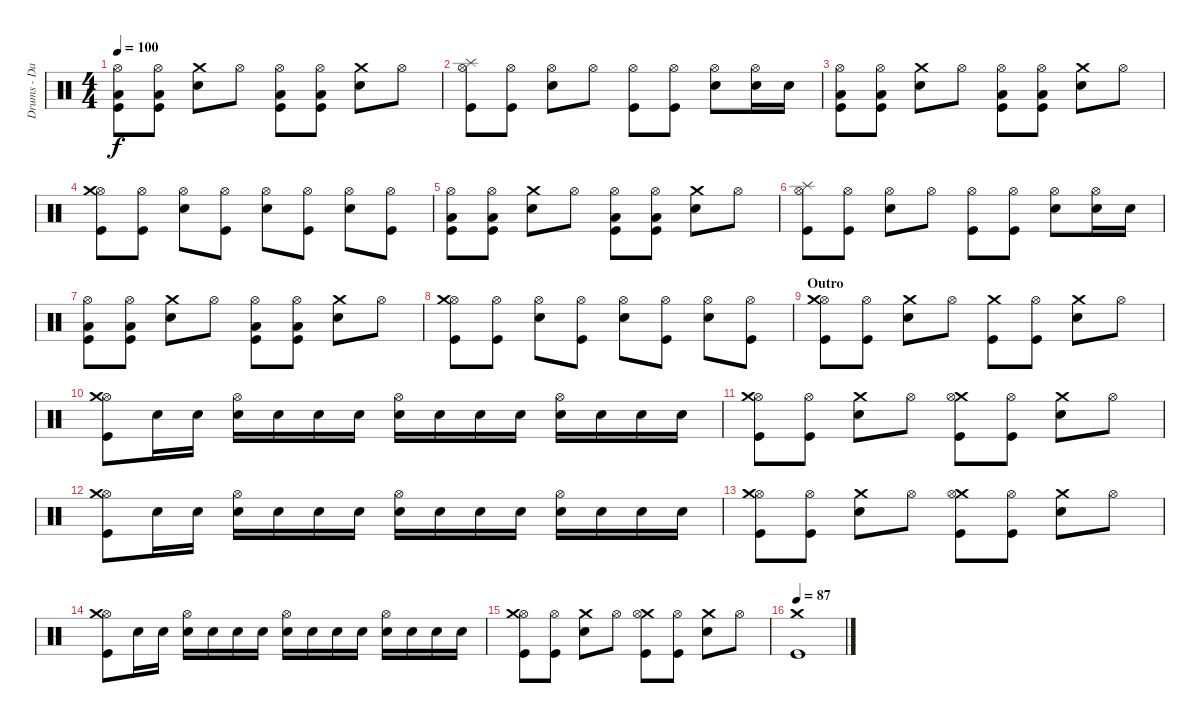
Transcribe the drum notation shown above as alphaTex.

\track ("Drums - Dave Grohl" "Drums - Da") {instrument percussion}
\staff {score}
\articulation defaults
\ts (4 4)
\tempo 100
\clef neutral
\ks c
("Kick (hit)" "Low Tom (hit)" "Hi-Hat (open)").8{dy f} ("Kick (hit)" "Low Tom (hit)" "Hi-Hat (open)").8 ("Snare (hit) 2" "Crash medium (hit)").8 "Hi-Hat (open)".8 ("Kick (hit)" "Low Tom (hit)" "Hi-Hat (open)").8 ("Kick (hit)" "Low Tom (hit)" "Hi-Hat (open)").8 ("Snare (hit) 2" "Crash medium (hit)").8 "Hi-Hat (open)".8 |
("Kick (hit)" "Hi-Hat (open)" "Splash (hit)").8 ("Kick (hit)" "Hi-Hat (open)").8 ("Snare (hit) 2" "Hi-Hat (open)").8 "Hi-Hat (open)".8 ("Kick (hit)" "Hi-Hat (open)").8 ("Kick (hit)" "Hi-Hat (open)").8 ("Snare (hit) 2" "Hi-Hat (open)").8 ("Snare (hit) 2" "Hi-Hat (open)").16 "Snare (hit) 2".16 |
("Kick (hit)" "Low Tom (hit)" "Hi-Hat (open)").8 ("Kick (hit)" "Low Tom (hit)" "Hi-Hat (open)").8 ("Snare (hit) 2" "Crash medium (hit)").8 "Hi-Hat (open)".8 ("Kick (hit)" "Low Tom (hit)" "Hi-Hat (open)").8 ("Kick (hit)" "Low Tom (hit)" "Hi-Hat (open)").8 ("Snare (hit) 2" "Crash medium (hit)").8 "Hi-Hat (open)".8 |
("Kick (hit)" "Hi-Hat (open)" "Crash medium (hit)").8 ("Kick (hit)" "Hi-Hat (open)").8 ("Snare (hit) 2" "Hi-Hat (open)").8 ("Kick (hit)" "Hi-Hat (open)").8 ("Snare (hit) 2" "Hi-Hat (open)").8 ("Kick (hit)" "Hi-Hat (open)").8 ("Snare (hit) 2" "Hi-Hat (open)").8 ("Kick (hit)" "Hi-Hat (open)").8 |
("Kick (hit)" "Low Tom (hit)" "Hi-Hat (open)").8 ("Kick (hit)" "Low Tom (hit)" "Hi-Hat (open)").8 ("Snare (hit) 2" "Crash medium (hit)").8 "Hi-Hat (open)".8 ("Kick (hit)" "Low Tom (hit)" "Hi-Hat (open)").8 ("Kick (hit)" "Low Tom (hit)" "Hi-Hat (open)").8 ("Snare (hit) 2" "Crash medium (hit)").8 "Hi-Hat (open)".8 |
("Kick (hit)" "Hi-Hat (open)" "Splash (hit)").8 ("Kick (hit)" "Hi-Hat (open)").8 ("Snare (hit) 2" "Hi-Hat (open)").8 "Hi-Hat (open)".8 ("Kick (hit)" "Hi-Hat (open)").8 ("Kick (hit)" "Hi-Hat (open)").8 ("Snare (hit) 2" "Hi-Hat (open)").8 ("Snare (hit) 2" "Hi-Hat (open)").16 "Snare (hit) 2".16 |
("Kick (hit)" "Low Tom (hit)" "Hi-Hat (open)").8 ("Kick (hit)" "Low Tom (hit)" "Hi-Hat (open)").8 ("Snare (hit) 2" "Crash medium (hit)").8 "Hi-Hat (open)".8 ("Kick (hit)" "Low Tom (hit)" "Hi-Hat (open)").8 ("Kick (hit)" "Low Tom (hit)" "Hi-Hat (open)").8 ("Snare (hit) 2" "Crash medium (hit)").8 "Hi-Hat (open)".8 |
("Kick (hit)" "Hi-Hat (open)" "Crash medium (hit)").8 ("Kick (hit)" "Hi-Hat (open)").8 ("Snare (hit) 2" "Hi-Hat (open)").8 ("Kick (hit)" "Hi-Hat (open)").8 ("Snare (hit) 2" "Hi-Hat (open)").8 ("Kick (hit)" "Hi-Hat (open)").8 ("Snare (hit) 2" "Hi-Hat (open)").8 ("Kick (hit)" "Hi-Hat (open)").8 |
\section ("" "Outro")
("Kick (hit)" "Hi-Hat (open)" "Crash medium (hit)").8 ("Kick (hit)" "Hi-Hat (open)").8 ("Snare (hit) 2" "Crash medium (hit)").8 "Hi-Hat (open)".8 ("Kick (hit)" "Crash medium (hit)").8 ("Kick (hit)" "Hi-Hat (open)").8 ("Snare (hit) 2" "Crash medium (hit)").8 "Hi-Hat (open)".8 |
("Kick (hit)" "Hi-Hat (open)" "Crash medium (hit)").8 "Snare (hit) 2".16 "Snare (hit) 2".16 ("Snare (hit) 2" "Hi-Hat (open)").16 "Snare (hit) 2".16 "Snare (hit) 2".16 "Snare (hit) 2".16 ("Snare (hit) 2" "Hi-Hat (open)").16 "Snare (hit) 2".16 "Snare (hit) 2".16 "Snare (hit) 2".16 ("Snare (hit) 2" "Hi-Hat (open)").16 "Snare (hit) 2".16 "Snare (hit) 2".16 "Snare (hit) 2".16 |
("Kick (hit)" "Hi-Hat (open)" "Crash medium (hit)").8 ("Kick (hit)" "Hi-Hat (open)").8 ("Snare (hit) 2" "Crash medium (hit)").8 "Hi-Hat (open)".8 ("Kick (hit)" "Crash medium (hit)" "Hi-Hat (open)").8 ("Kick (hit)" "Hi-Hat (open)").8 ("Snare (hit) 2" "Crash medium (hit)").8 "Hi-Hat (open)".8 |
("Kick (hit)" "Hi-Hat (open)" "Crash medium (hit)").8 "Snare (hit) 2".16 "Snare (hit) 2".16 ("Snare (hit) 2" "Hi-Hat (open)").16 "Snare (hit) 2".16 "Snare (hit) 2".16 "Snare (hit) 2".16 ("Snare (hit) 2" "Hi-Hat (open)").16 "Snare (hit) 2".16 "Snare (hit) 2".16 "Snare (hit) 2".16 ("Snare (hit) 2" "Hi-Hat (open)").16 "Snare (hit) 2".16 "Snare (hit) 2".16 "Snare (hit) 2".16 |
("Kick (hit)" "Hi-Hat (open)" "Crash medium (hit)").8 ("Kick (hit)" "Hi-Hat (open)").8 ("Snare (hit) 2" "Crash medium (hit)").8 "Hi-Hat (open)".8 ("Kick (hit)" "Crash medium (hit)" "Hi-Hat (open)").8 ("Kick (hit)" "Hi-Hat (open)").8 ("Snare (hit) 2" "Crash medium (hit)").8 "Hi-Hat (open)".8 |
("Kick (hit)" "Hi-Hat (open)" "Crash medium (hit)").8 "Snare (hit) 2".16 "Snare (hit) 2".16 ("Snare (hit) 2" "Hi-Hat (open)").16 "Snare (hit) 2".16 "Snare (hit) 2".16 "Snare (hit) 2".16 ("Snare (hit) 2" "Hi-Hat (open)").16 "Snare (hit) 2".16 "Snare (hit) 2".16 "Snare (hit) 2".16 ("Snare (hit) 2" "Hi-Hat (open)").16 "Snare (hit) 2".16 "Snare (hit) 2".16 "Snare (hit) 2".16 |
("Kick (hit)" "Hi-Hat (open)" "Crash medium (hit)").8 ("Kick (hit)" "Hi-Hat (open)").8 ("Snare (hit) 2" "Crash medium (hit)").8 "Hi-Hat (open)".8 ("Kick (hit)" "Crash medium (hit)" "Hi-Hat (open)").8 ("Kick (hit)" "Hi-Hat (open)").8 ("Snare (hit) 2" "Crash medium (hit)").8 "Hi-Hat (open)".8 |
\tempo 87
("Kick (hit)" "Crash medium (hit)").1
